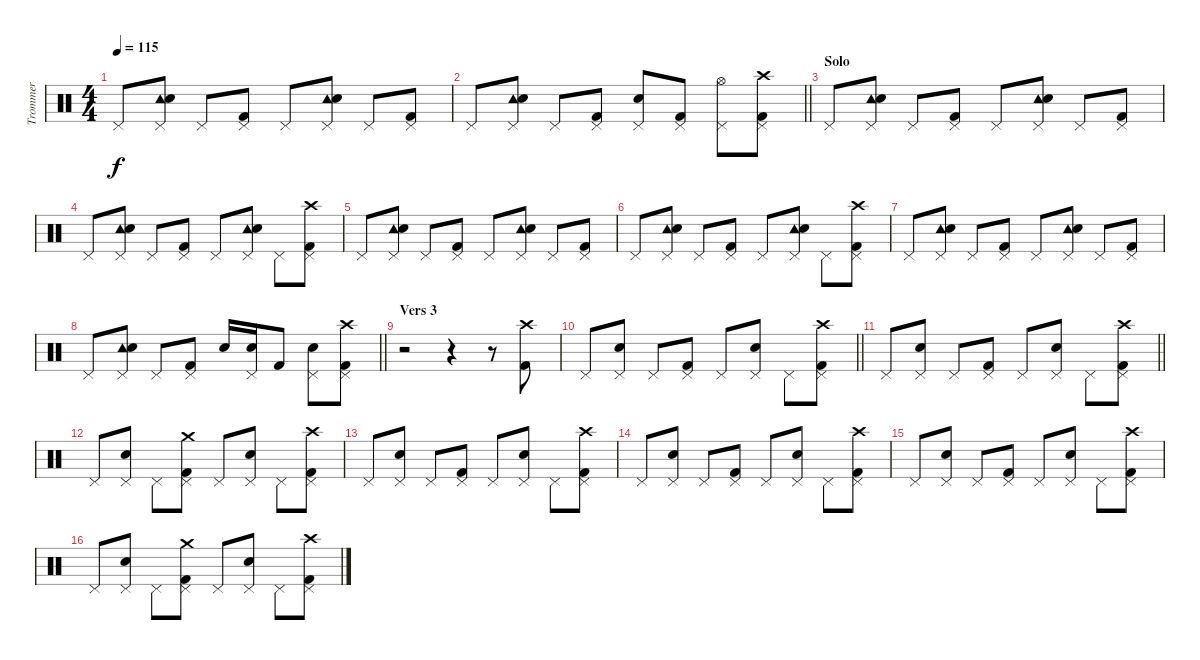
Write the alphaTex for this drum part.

\track ("Trommer" "Trommer") {instrument percussion}
\staff {score}
\articulation defaults
\ts (4 4)
\tempo 115
\clef neutral
\ks c "Pedal Hi-Hat (hit)".8{dy f}
("Pedal Hi-Hat (hit)" "Tambourine (hit)" "Electric Snare (hit)").8 "Pedal Hi-Hat (hit)".8 ("Pedal Hi-Hat (hit)" "Kick (hit) 2").8 "Pedal Hi-Hat (hit)".8 ("Pedal Hi-Hat (hit)" "Tambourine (hit)" "Electric Snare (hit)").8 "Pedal Hi-Hat (hit)".8 ("Pedal Hi-Hat (hit)" "Kick (hit) 2").8 |
\barLineRight lightlight "Pedal Hi-Hat (hit)".8
("Pedal Hi-Hat (hit)" "Tambourine (hit)" "Electric Snare (hit)").8 "Pedal Hi-Hat (hit)".8 ("Pedal Hi-Hat (hit)" "Kick (hit) 2").8 ("Pedal Hi-Hat (hit)" "Electric Snare (hit)").8 ("Pedal Hi-Hat (hit)" "Kick (hit) 2").8 ("Pedal Hi-Hat (hit)" "Hi-Hat (open)").8 ("Pedal Hi-Hat (hit)" "Crash high (hit)" "Kick (hit) 2").8 |
\section ("" "Solo")
"Pedal Hi-Hat (hit)".8 ("Pedal Hi-Hat (hit)" "Tambourine (hit)" "Electric Snare (hit)").8 "Pedal Hi-Hat (hit)".8 ("Pedal Hi-Hat (hit)" "Kick (hit) 2").8 "Pedal Hi-Hat (hit)".8 ("Pedal Hi-Hat (hit)" "Tambourine (hit)" "Electric Snare (hit)").8 "Pedal Hi-Hat (hit)".8 ("Pedal Hi-Hat (hit)" "Kick (hit) 2").8 |
"Pedal Hi-Hat (hit)".8 ("Pedal Hi-Hat (hit)" "Tambourine (hit)" "Electric Snare (hit)").8 "Pedal Hi-Hat (hit)".8 ("Pedal Hi-Hat (hit)" "Kick (hit) 2").8 "Pedal Hi-Hat (hit)".8 ("Pedal Hi-Hat (hit)" "Tambourine (hit)" "Electric Snare (hit)").8 "Pedal Hi-Hat (hit)".8 ("Pedal Hi-Hat (hit)" "Crash high (hit)" "Kick (hit) 2").8 |
"Pedal Hi-Hat (hit)".8 ("Pedal Hi-Hat (hit)" "Tambourine (hit)" "Electric Snare (hit)").8 "Pedal Hi-Hat (hit)".8 ("Pedal Hi-Hat (hit)" "Kick (hit) 2").8 "Pedal Hi-Hat (hit)".8 ("Pedal Hi-Hat (hit)" "Tambourine (hit)" "Electric Snare (hit)").8 "Pedal Hi-Hat (hit)".8 ("Pedal Hi-Hat (hit)" "Kick (hit) 2").8 |
"Pedal Hi-Hat (hit)".8 ("Pedal Hi-Hat (hit)" "Tambourine (hit)" "Electric Snare (hit)").8 "Pedal Hi-Hat (hit)".8 ("Pedal Hi-Hat (hit)" "Kick (hit) 2").8 "Pedal Hi-Hat (hit)".8 ("Pedal Hi-Hat (hit)" "Tambourine (hit)" "Electric Snare (hit)").8 "Pedal Hi-Hat (hit)".8 ("Pedal Hi-Hat (hit)" "Crash high (hit)" "Kick (hit) 2").8 |
"Pedal Hi-Hat (hit)".8 ("Pedal Hi-Hat (hit)" "Tambourine (hit)" "Electric Snare (hit)").8 "Pedal Hi-Hat (hit)".8 ("Pedal Hi-Hat (hit)" "Kick (hit) 2").8 "Pedal Hi-Hat (hit)".8 ("Pedal Hi-Hat (hit)" "Tambourine (hit)" "Electric Snare (hit)").8 "Pedal Hi-Hat (hit)".8 ("Pedal Hi-Hat (hit)" "Kick (hit) 2").8 |
\barLineRight lightlight "Pedal Hi-Hat (hit)".8
("Pedal Hi-Hat (hit)" "Tambourine (hit)" "Electric Snare (hit)").8 "Pedal Hi-Hat (hit)".8 ("Pedal Hi-Hat (hit)" "Kick (hit) 2").8 "Electric Snare (hit)".16 ("Pedal Hi-Hat (hit)" "Electric Snare (hit)").16 "Kick (hit) 2".8 ("Pedal Hi-Hat (hit)" "Electric Snare (hit)").8 ("Pedal Hi-Hat (hit)" "Crash high (hit)" "Kick (hit) 2").8 |
\section ("" "Vers 3")
r.2 r.4 r.8 ("Crash high (hit)" "Kick (hit) 2").8 |
\barLineRight lightlight "Pedal Hi-Hat (hit)".8
("Pedal Hi-Hat (hit)" "Electric Snare (hit)").8 "Pedal Hi-Hat (hit)".8 ("Pedal Hi-Hat (hit)" "Kick (hit) 2").8 "Pedal Hi-Hat (hit)".8 ("Pedal Hi-Hat (hit)" "Electric Snare (hit)").8 "Pedal Hi-Hat (hit)".8 ("Pedal Hi-Hat (hit)" "Crash high (hit)" "Kick (hit) 2").8 |
\barLineRight lightlight "Pedal Hi-Hat (hit)".8
("Pedal Hi-Hat (hit)" "Electric Snare (hit)").8 "Pedal Hi-Hat (hit)".8 ("Pedal Hi-Hat (hit)" "Kick (hit) 2").8 "Pedal Hi-Hat (hit)".8 ("Pedal Hi-Hat (hit)" "Electric Snare (hit)").8 "Pedal Hi-Hat (hit)".8 ("Pedal Hi-Hat (hit)" "Crash high (hit)" "Kick (hit) 2").8 |
"Pedal Hi-Hat (hit)".8 ("Pedal Hi-Hat (hit)" "Electric Snare (hit)").8 "Pedal Hi-Hat (hit)".8 ("Pedal Hi-Hat (hit)" "Crash medium (hit)" "Kick (hit) 2").8 "Pedal Hi-Hat (hit)".8 ("Pedal Hi-Hat (hit)" "Electric Snare (hit)").8 "Pedal Hi-Hat (hit)".8 ("Pedal Hi-Hat (hit)" "Crash high (hit)" "Kick (hit) 2").8 |
"Pedal Hi-Hat (hit)".8 ("Pedal Hi-Hat (hit)" "Electric Snare (hit)").8 "Pedal Hi-Hat (hit)".8 ("Pedal Hi-Hat (hit)" "Kick (hit) 2").8 "Pedal Hi-Hat (hit)".8 ("Pedal Hi-Hat (hit)" "Electric Snare (hit)").8 "Pedal Hi-Hat (hit)".8 ("Pedal Hi-Hat (hit)" "Crash high (hit)" "Kick (hit) 2").8 |
"Pedal Hi-Hat (hit)".8 ("Pedal Hi-Hat (hit)" "Electric Snare (hit)").8 "Pedal Hi-Hat (hit)".8 ("Pedal Hi-Hat (hit)" "Kick (hit) 2").8 "Pedal Hi-Hat (hit)".8 ("Pedal Hi-Hat (hit)" "Electric Snare (hit)").8 "Pedal Hi-Hat (hit)".8 ("Pedal Hi-Hat (hit)" "Crash high (hit)" "Kick (hit) 2").8 |
"Pedal Hi-Hat (hit)".8 ("Pedal Hi-Hat (hit)" "Electric Snare (hit)").8 "Pedal Hi-Hat (hit)".8 ("Pedal Hi-Hat (hit)" "Kick (hit) 2").8 "Pedal Hi-Hat (hit)".8 ("Pedal Hi-Hat (hit)" "Electric Snare (hit)").8 "Pedal Hi-Hat (hit)".8 ("Pedal Hi-Hat (hit)" "Crash high (hit)" "Kick (hit) 2").8 |
"Pedal Hi-Hat (hit)".8 ("Pedal Hi-Hat (hit)" "Electric Snare (hit)").8 "Pedal Hi-Hat (hit)".8 ("Pedal Hi-Hat (hit)" "Crash medium (hit)" "Kick (hit) 2").8 "Pedal Hi-Hat (hit)".8 ("Pedal Hi-Hat (hit)" "Electric Snare (hit)").8 "Pedal Hi-Hat (hit)".8 ("Pedal Hi-Hat (hit)" "Crash high (hit)" "Kick (hit) 2").8
